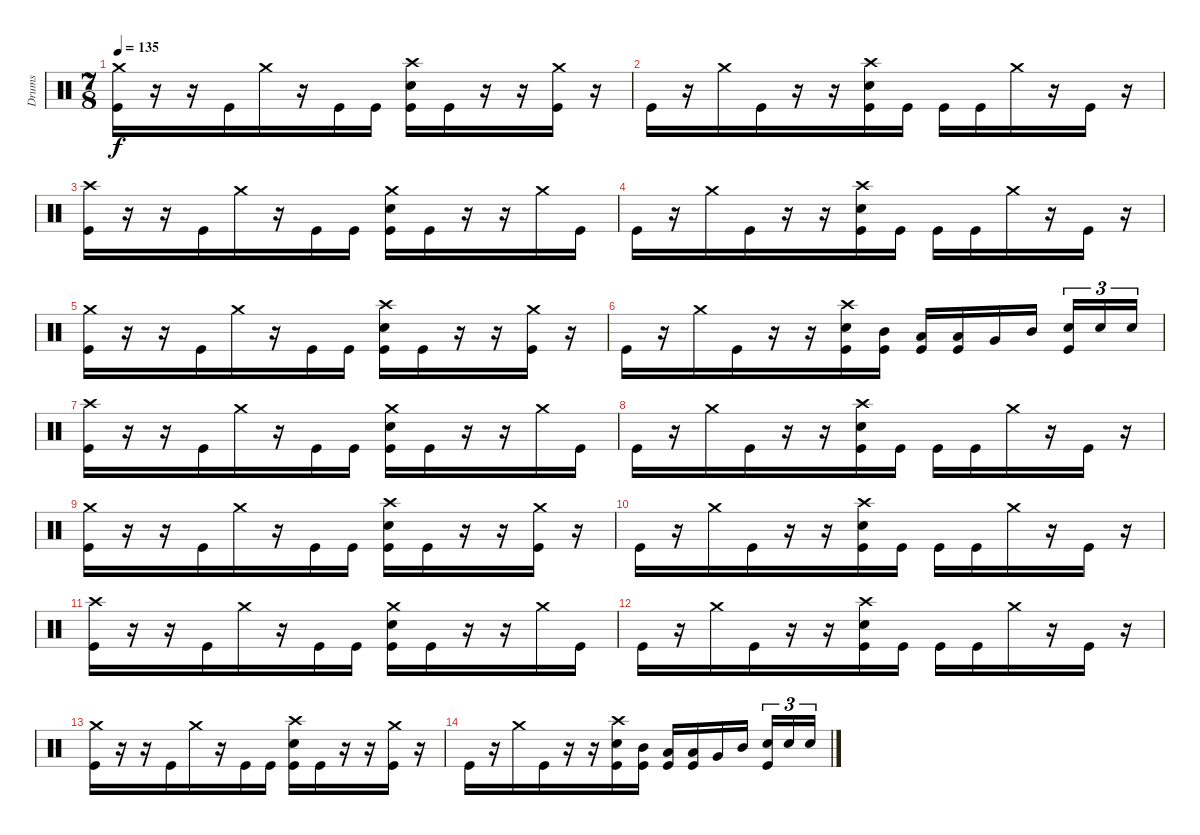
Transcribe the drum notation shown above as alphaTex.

\track ("Drums" "Drums") {instrument percussion}
\staff {score}
\articulation defaults
\ts (7 8)
\tempo 135
\clef neutral
\ks c
("Crash medium (hit)" "Kick (hit)").16{dy f} r.16 r.16 "Kick (hit)".16 "Crash medium (hit)".16 r.16 "Kick (hit)".16 "Kick (hit)".16 ("Crash high (hit)" "Snare (hit) 2" "Kick (hit)").16 "Kick (hit)".16 r.16 r.16 ("Crash medium (hit)" "Kick (hit)").16 r.16 |
"Kick (hit)".16 r.16 "Crash medium (hit)".16 "Kick (hit)".16 r.16 r.16 ("Crash high (hit)" "Snare (hit) 2" "Kick (hit)").16 "Kick (hit)".16 "Kick (hit)".16 "Kick (hit)".16 "Crash medium (hit)".16 r.16 "Kick (hit)".16 r.16 |
("Crash high (hit)" "Kick (hit)").16 r.16 r.16 "Kick (hit)".16 "Crash medium (hit)".16 r.16 "Kick (hit)".16 "Kick (hit)".16 ("Crash medium (hit)" "Snare (hit) 2" "Kick (hit)").16 "Kick (hit)".16 r.16 r.16 "Crash medium (hit)".16 "Kick (hit)".16 |
"Kick (hit)".16 r.16 "Crash medium (hit)".16 "Kick (hit)".16 r.16 r.16 ("Crash high (hit)" "Snare (hit) 2" "Kick (hit)").16 "Kick (hit)".16 "Kick (hit)".16 "Kick (hit)".16 "Crash medium (hit)".16 r.16 "Kick (hit)".16 r.16 |
("Crash medium (hit)" "Kick (hit)").16 r.16 r.16 "Kick (hit)".16 "Crash medium (hit)".16 r.16 "Kick (hit)".16 "Kick (hit)".16 ("Crash high (hit)" "Snare (hit) 2" "Kick (hit)").16 "Kick (hit)".16 r.16 r.16 ("Crash medium (hit)" "Kick (hit)").16 r.16 |
"Kick (hit)".16 r.16 "Crash medium (hit)".16 "Kick (hit)".16 r.16 r.16 ("Crash high (hit)" "Snare (hit) 2" "Kick (hit)").16 ("Mid Tom (hit)" "Kick (hit)").16 ("Low Tom (hit)" "Kick (hit)").16 ("Low Tom (hit)" "Kick (hit)").16 "Very Low Tom (hit)".16 "Mid Tom (hit)".16 ("Snare (hit) 2" "Kick (hit)").16{tu (3 2)} "Snare (hit) 2".16{tu (3 2)} "Snare (hit) 2".16{tu (3 2)} |
("Crash high (hit)" "Kick (hit)").16 r.16 r.16 "Kick (hit)".16 "Crash medium (hit)".16 r.16 "Kick (hit)".16 "Kick (hit)".16 ("Crash medium (hit)" "Snare (hit) 2" "Kick (hit)").16 "Kick (hit)".16 r.16 r.16 "Crash medium (hit)".16 "Kick (hit)".16 |
"Kick (hit)".16 r.16 "Crash medium (hit)".16 "Kick (hit)".16 r.16 r.16 ("Crash high (hit)" "Snare (hit) 2" "Kick (hit)").16 "Kick (hit)".16 "Kick (hit)".16 "Kick (hit)".16 "Crash medium (hit)".16 r.16 "Kick (hit)".16 r.16 |
("Crash medium (hit)" "Kick (hit)").16 r.16 r.16 "Kick (hit)".16 "Crash medium (hit)".16 r.16 "Kick (hit)".16 "Kick (hit)".16 ("Crash high (hit)" "Snare (hit) 2" "Kick (hit)").16 "Kick (hit)".16 r.16 r.16 ("Crash medium (hit)" "Kick (hit)").16 r.16 |
"Kick (hit)".16 r.16 "Crash medium (hit)".16 "Kick (hit)".16 r.16 r.16 ("Crash high (hit)" "Snare (hit) 2" "Kick (hit)").16 "Kick (hit)".16 "Kick (hit)".16 "Kick (hit)".16 "Crash medium (hit)".16 r.16 "Kick (hit)".16 r.16 |
("Crash high (hit)" "Kick (hit)").16 r.16 r.16 "Kick (hit)".16 "Crash medium (hit)".16 r.16 "Kick (hit)".16 "Kick (hit)".16 ("Crash medium (hit)" "Snare (hit) 2" "Kick (hit)").16 "Kick (hit)".16 r.16 r.16 "Crash medium (hit)".16 "Kick (hit)".16 |
"Kick (hit)".16 r.16 "Crash medium (hit)".16 "Kick (hit)".16 r.16 r.16 ("Crash high (hit)" "Snare (hit) 2" "Kick (hit)").16 "Kick (hit)".16 "Kick (hit)".16 "Kick (hit)".16 "Crash medium (hit)".16 r.16 "Kick (hit)".16 r.16 |
("Crash medium (hit)" "Kick (hit)").16 r.16 r.16 "Kick (hit)".16 "Crash medium (hit)".16 r.16 "Kick (hit)".16 "Kick (hit)".16 ("Crash high (hit)" "Snare (hit) 2" "Kick (hit)").16 "Kick (hit)".16 r.16 r.16 ("Crash medium (hit)" "Kick (hit)").16 r.16 |
"Kick (hit)".16 r.16 "Crash medium (hit)".16 "Kick (hit)".16 r.16 r.16 ("Crash high (hit)" "Snare (hit) 2" "Kick (hit)").16 ("Mid Tom (hit)" "Kick (hit)").16 ("Low Tom (hit)" "Kick (hit)").16 ("Low Tom (hit)" "Kick (hit)").16 "Very Low Tom (hit)".16 "Mid Tom (hit)".16 ("Snare (hit) 2" "Kick (hit)").16{tu (3 2)} "Snare (hit) 2".16{tu (3 2)} "Snare (hit) 2".16{tu (3 2)}
